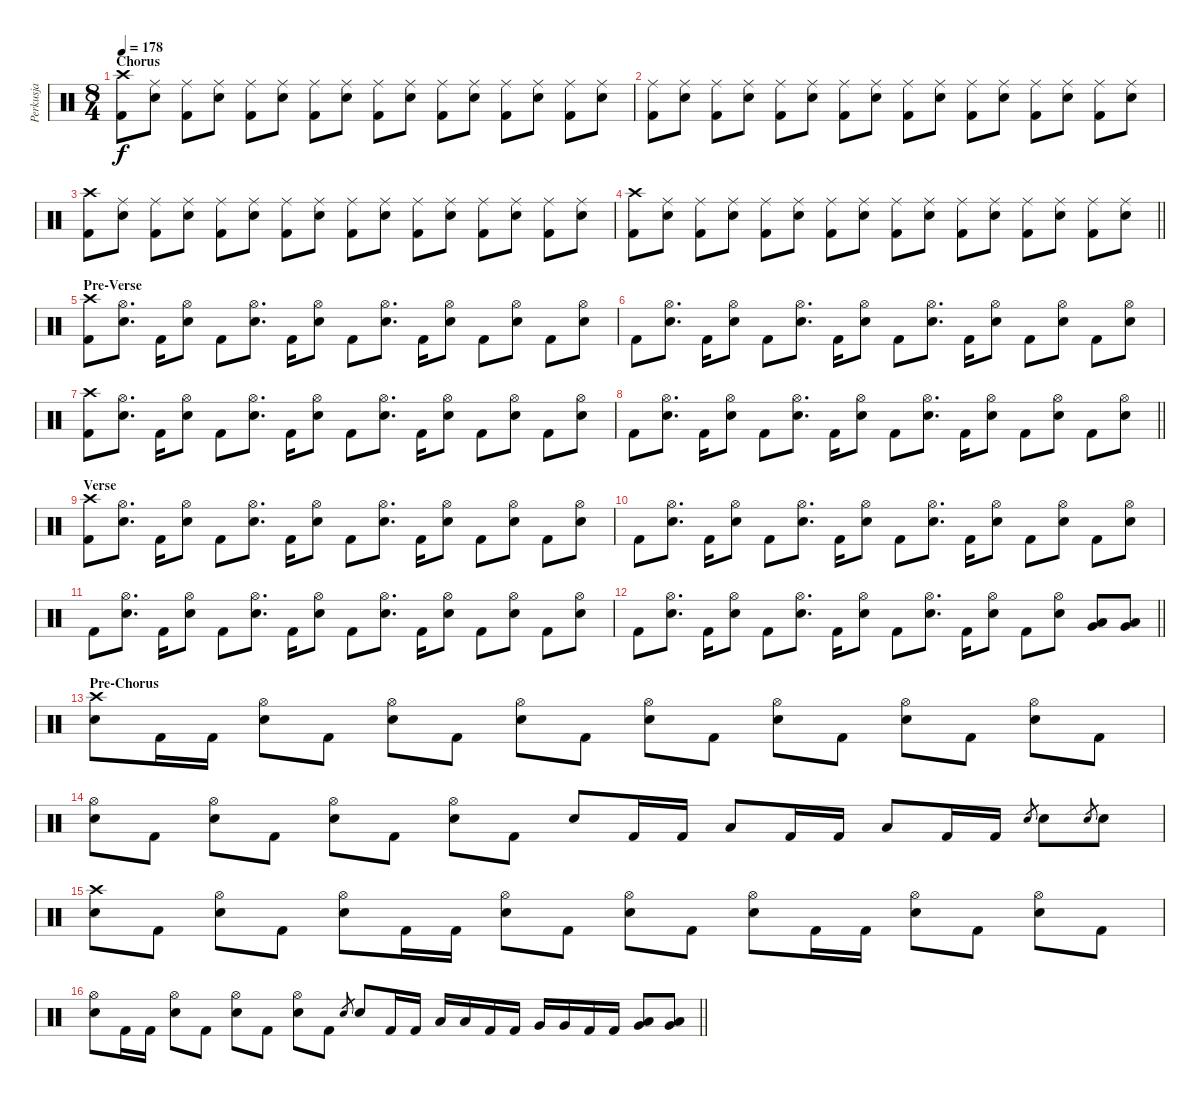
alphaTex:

\track ("Perkusja" "Perkusja") {instrument percussion}
\staff {score}
\articulation defaults
\ts (8 4)
\section ("" "Chorus")
\tempo 178
\clef neutral
\ks c
("Crash high (hit)" "Kick (hit) 2").8{dy f} ("Ride (middle)" "Snare (hit) 2").8 ("Ride (middle)" "Kick (hit) 2").8 ("Ride (middle)" "Snare (hit) 2").8 ("Ride (middle)" "Kick (hit) 2").8 ("Ride (middle)" "Snare (hit) 2").8 ("Ride (middle)" "Kick (hit) 2").8 ("Ride (middle)" "Snare (hit) 2").8 ("Ride (middle)" "Kick (hit) 2").8 ("Ride (middle)" "Snare (hit) 2").8 ("Ride (middle)" "Kick (hit) 2").8 ("Ride (middle)" "Snare (hit) 2").8 ("Ride (middle)" "Kick (hit) 2").8 ("Ride (middle)" "Snare (hit) 2").8 ("Ride (middle)" "Kick (hit) 2").8 ("Ride (middle)" "Snare (hit) 2").8 |
("Ride (middle)" "Kick (hit) 2").8 ("Ride (middle)" "Snare (hit) 2").8 ("Ride (middle)" "Kick (hit) 2").8 ("Ride (middle)" "Snare (hit) 2").8 ("Ride (middle)" "Kick (hit) 2").8 ("Ride (middle)" "Snare (hit) 2").8 ("Ride (middle)" "Kick (hit) 2").8 ("Ride (middle)" "Snare (hit) 2").8 ("Ride (middle)" "Kick (hit) 2").8 ("Ride (middle)" "Snare (hit) 2").8 ("Ride (middle)" "Kick (hit) 2").8 ("Ride (middle)" "Snare (hit) 2").8 ("Ride (middle)" "Kick (hit) 2").8 ("Ride (middle)" "Snare (hit) 2").8 ("Ride (middle)" "Kick (hit) 2").8 ("Ride (middle)" "Snare (hit) 2").8 |
("Crash high (hit)" "Kick (hit) 2").8 ("Ride (middle)" "Snare (hit) 2").8 ("Ride (middle)" "Kick (hit) 2").8 ("Ride (middle)" "Snare (hit) 2").8 ("Ride (middle)" "Kick (hit) 2").8 ("Ride (middle)" "Snare (hit) 2").8 ("Ride (middle)" "Kick (hit) 2").8 ("Ride (middle)" "Snare (hit) 2").8 ("Ride (middle)" "Kick (hit) 2").8 ("Ride (middle)" "Snare (hit) 2").8 ("Ride (middle)" "Kick (hit) 2").8 ("Ride (middle)" "Snare (hit) 2").8 ("Ride (middle)" "Kick (hit) 2").8 ("Ride (middle)" "Snare (hit) 2").8 ("Ride (middle)" "Kick (hit) 2").8 ("Ride (middle)" "Snare (hit) 2").8 |
\barLineRight lightlight
("Crash high (hit)" "Kick (hit) 2").8 ("Ride (middle)" "Snare (hit) 2").8 ("Ride (middle)" "Kick (hit) 2").8 ("Ride (middle)" "Snare (hit) 2").8 ("Ride (middle)" "Kick (hit) 2").8 ("Ride (middle)" "Snare (hit) 2").8 ("Ride (middle)" "Kick (hit) 2").8 ("Ride (middle)" "Snare (hit) 2").8 ("Ride (middle)" "Kick (hit) 2").8 ("Ride (middle)" "Snare (hit) 2").8 ("Ride (middle)" "Kick (hit) 2").8 ("Ride (middle)" "Snare (hit) 2").8 ("Ride (middle)" "Kick (hit) 2").8 ("Ride (middle)" "Snare (hit) 2").8 ("Ride (middle)" "Kick (hit) 2").8 ("Ride (middle)" "Snare (hit) 2").8 |
\section ("" "Pre-Verse")
("Crash high (hit)" "Kick (hit) 2").8 ("Hi-Hat (open)" "Snare (hit) 2").8{d} "Kick (hit) 2".16 ("Hi-Hat (open)" "Snare (hit) 2").8 "Kick (hit) 2".8 ("Hi-Hat (open)" "Snare (hit) 2").8{d} "Kick (hit) 2".16 ("Hi-Hat (open)" "Snare (hit) 2").8 "Kick (hit) 2".8 ("Hi-Hat (open)" "Snare (hit) 2").8{d} "Kick (hit) 2".16 ("Hi-Hat (open)" "Snare (hit) 2").8 "Kick (hit) 2".8 ("Hi-Hat (open)" "Snare (hit) 2").8 "Kick (hit) 2".8 ("Hi-Hat (open)" "Snare (hit) 2").8 |
"Kick (hit) 2".8 ("Hi-Hat (open)" "Snare (hit) 2").8{d} "Kick (hit) 2".16 ("Hi-Hat (open)" "Snare (hit) 2").8 "Kick (hit) 2".8 ("Hi-Hat (open)" "Snare (hit) 2").8{d} "Kick (hit) 2".16 ("Hi-Hat (open)" "Snare (hit) 2").8 "Kick (hit) 2".8 ("Hi-Hat (open)" "Snare (hit) 2").8{d} "Kick (hit) 2".16 ("Hi-Hat (open)" "Snare (hit) 2").8 "Kick (hit) 2".8 ("Hi-Hat (open)" "Snare (hit) 2").8 "Kick (hit) 2".8 ("Hi-Hat (open)" "Snare (hit) 2").8 |
("Crash high (hit)" "Kick (hit) 2").8 ("Hi-Hat (open)" "Snare (hit) 2").8{d} "Kick (hit) 2".16 ("Hi-Hat (open)" "Snare (hit) 2").8 "Kick (hit) 2".8 ("Hi-Hat (open)" "Snare (hit) 2").8{d} "Kick (hit) 2".16 ("Hi-Hat (open)" "Snare (hit) 2").8 "Kick (hit) 2".8 ("Hi-Hat (open)" "Snare (hit) 2").8{d} "Kick (hit) 2".16 ("Hi-Hat (open)" "Snare (hit) 2").8 "Kick (hit) 2".8 ("Hi-Hat (open)" "Snare (hit) 2").8 "Kick (hit) 2".8 ("Hi-Hat (open)" "Snare (hit) 2").8 |
\barLineRight lightlight "Kick (hit) 2".8
("Hi-Hat (open)" "Snare (hit) 2").8{d} "Kick (hit) 2".16 ("Hi-Hat (open)" "Snare (hit) 2").8 "Kick (hit) 2".8 ("Hi-Hat (open)" "Snare (hit) 2").8{d} "Kick (hit) 2".16 ("Hi-Hat (open)" "Snare (hit) 2").8 "Kick (hit) 2".8 ("Hi-Hat (open)" "Snare (hit) 2").8{d} "Kick (hit) 2".16 ("Hi-Hat (open)" "Snare (hit) 2").8 "Kick (hit) 2".8 ("Hi-Hat (open)" "Snare (hit) 2").8 "Kick (hit) 2".8 ("Hi-Hat (open)" "Snare (hit) 2").8 |
\section ("" "Verse")
("Crash high (hit)" "Kick (hit) 2").8 ("Hi-Hat (open)" "Snare (hit) 2").8{d} "Kick (hit) 2".16 ("Hi-Hat (open)" "Snare (hit) 2").8 "Kick (hit) 2".8 ("Hi-Hat (open)" "Snare (hit) 2").8{d} "Kick (hit) 2".16 ("Hi-Hat (open)" "Snare (hit) 2").8 "Kick (hit) 2".8 ("Hi-Hat (open)" "Snare (hit) 2").8{d} "Kick (hit) 2".16 ("Hi-Hat (open)" "Snare (hit) 2").8 "Kick (hit) 2".8 ("Hi-Hat (open)" "Snare (hit) 2").8 "Kick (hit) 2".8 ("Hi-Hat (open)" "Snare (hit) 2").8 |
"Kick (hit) 2".8 ("Hi-Hat (open)" "Snare (hit) 2").8{d} "Kick (hit) 2".16 ("Hi-Hat (open)" "Snare (hit) 2").8 "Kick (hit) 2".8 ("Hi-Hat (open)" "Snare (hit) 2").8{d} "Kick (hit) 2".16 ("Hi-Hat (open)" "Snare (hit) 2").8 "Kick (hit) 2".8 ("Hi-Hat (open)" "Snare (hit) 2").8{d} "Kick (hit) 2".16 ("Hi-Hat (open)" "Snare (hit) 2").8 "Kick (hit) 2".8 ("Hi-Hat (open)" "Snare (hit) 2").8 "Kick (hit) 2".8 ("Hi-Hat (open)" "Snare (hit) 2").8 |
"Kick (hit) 2".8 ("Hi-Hat (open)" "Snare (hit) 2").8{d} "Kick (hit) 2".16 ("Hi-Hat (open)" "Snare (hit) 2").8 "Kick (hit) 2".8 ("Hi-Hat (open)" "Snare (hit) 2").8{d} "Kick (hit) 2".16 ("Hi-Hat (open)" "Snare (hit) 2").8 "Kick (hit) 2".8 ("Hi-Hat (open)" "Snare (hit) 2").8{d} "Kick (hit) 2".16 ("Hi-Hat (open)" "Snare (hit) 2").8 "Kick (hit) 2".8 ("Hi-Hat (open)" "Snare (hit) 2").8 "Kick (hit) 2".8 ("Hi-Hat (open)" "Snare (hit) 2").8 |
\barLineRight lightlight "Kick (hit) 2".8
("Hi-Hat (open)" "Snare (hit) 2").8{d} "Kick (hit) 2".16 ("Hi-Hat (open)" "Snare (hit) 2").8 "Kick (hit) 2".8 ("Hi-Hat (open)" "Snare (hit) 2").8{d} "Kick (hit) 2".16 ("Hi-Hat (open)" "Snare (hit) 2").8 "Kick (hit) 2".8 ("Hi-Hat (open)" "Snare (hit) 2").8{d} "Kick (hit) 2".16 ("Hi-Hat (open)" "Snare (hit) 2").8 "Kick (hit) 2".8 ("Hi-Hat (open)" "Snare (hit) 2").8 ("Low Floor Tom (hit)" "Very Low Tom (hit)").8 ("Low Floor Tom (hit)" "Very Low Tom (hit)").8 |
\section ("" "Pre-Chorus")
("Crash high (hit)" "Snare (hit) 2").8 "Kick (hit) 2".16 "Kick (hit) 2".16 ("Hi-Hat (open)" "Snare (hit) 2").8 "Kick (hit) 2".8 ("Hi-Hat (open)" "Snare (hit) 2").8 "Kick (hit) 2".8 ("Hi-Hat (open)" "Snare (hit) 2").8 "Kick (hit) 2".8 ("Hi-Hat (open)" "Snare (hit) 2").8 "Kick (hit) 2".8 ("Hi-Hat (open)" "Snare (hit) 2").8 "Kick (hit) 2".8 ("Hi-Hat (open)" "Snare (hit) 2").8 "Kick (hit) 2".8 ("Hi-Hat (open)" "Snare (hit) 2").8 "Kick (hit) 2".8 |
("Hi-Hat (open)" "Snare (hit) 2").8 "Kick (hit) 2".8 ("Hi-Hat (open)" "Snare (hit) 2").8 "Kick (hit) 2".8 ("Hi-Hat (open)" "Snare (hit) 2").8 "Kick (hit) 2".8 ("Hi-Hat (open)" "Snare (hit) 2").8 "Kick (hit) 2".8 "Snare (hit) 2".8 "Kick (hit) 2".16 "Kick (hit) 2".16 "Low Tom (hit)".8 "Kick (hit) 2".16 "Kick (hit) 2".16 "Low Floor Tom (hit)".8 "Kick (hit) 2".16 "Kick (hit) 2".16 "Snare (hit) 2".8{gr} "Snare (hit) 2".8 "Snare (hit) 2".8{gr} "Snare (hit) 2".8 |
("Crash high (hit)" "Snare (hit) 2").8 "Kick (hit) 2".8 ("Hi-Hat (open)" "Snare (hit) 2").8 "Kick (hit) 2".8 ("Hi-Hat (open)" "Snare (hit) 2").8 "Kick (hit) 2".16 "Kick (hit) 2".16 ("Hi-Hat (open)" "Snare (hit) 2").8 "Kick (hit) 2".8 ("Hi-Hat (open)" "Snare (hit) 2").8 "Kick (hit) 2".8 ("Hi-Hat (open)" "Snare (hit) 2").8 "Kick (hit) 2".16 "Kick (hit) 2".16 ("Hi-Hat (open)" "Snare (hit) 2").8 "Kick (hit) 2".8 ("Hi-Hat (open)" "Snare (hit) 2").8 "Kick (hit) 2".8 |
\barLineRight lightlight
("Hi-Hat (open)" "Snare (hit) 2").8 "Kick (hit) 2".16 "Kick (hit) 2".16 ("Hi-Hat (open)" "Snare (hit) 2").8 "Kick (hit) 2".8 ("Hi-Hat (open)" "Snare (hit) 2").8 "Kick (hit) 2".8 ("Hi-Hat (open)" "Snare (hit) 2").8 "Kick (hit) 2".8 "Snare (hit) 2".8{gr} "Snare (hit) 2".8 "Kick (hit) 2".16 "Kick (hit) 2".16 "Low Tom (hit)".16 "Low Tom (hit)".16 "Kick (hit) 2".16 "Kick (hit) 2".16 "Very Low Tom (hit)".16 "Very Low Tom (hit)".16 "Kick (hit) 2".16 "Kick (hit) 2".16 ("Low Floor Tom (hit)" "Very Low Tom (hit)").8 ("Low Floor Tom (hit)" "Very Low Tom (hit)").8
